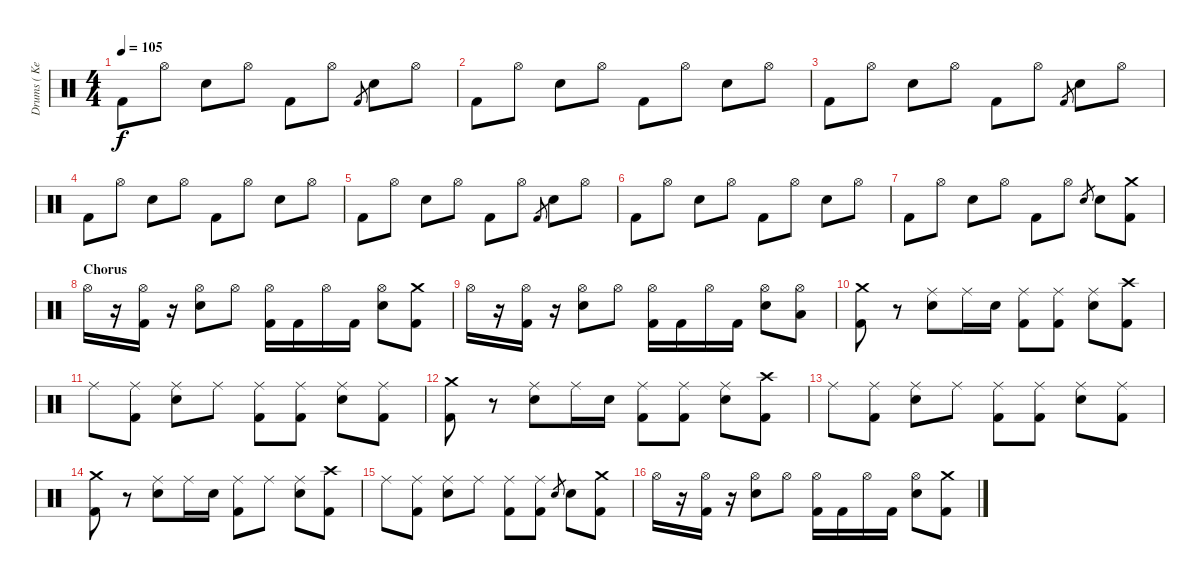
\track ("Drums ( Kevin Miller )" "Drums ( Ke") {instrument percussion}
\staff {score}
\articulation defaults
\ts (4 4)
\tempo 105
\clef neutral
\ks c "Kick (hit) 2".8{dy f} "Hi-Hat (open)".8 "Snare (hit) 2".8 "Hi-Hat (open)".8 "Kick (hit) 2".8 "Hi-Hat (open)".8 "Kick (hit) 2".8{gr} "Snare (hit) 2".8 "Hi-Hat (open)".8
|
"Kick (hit) 2".8 "Hi-Hat (open)".8 "Snare (hit) 2".8 "Hi-Hat (open)".8 "Kick (hit) 2".8 "Hi-Hat (open)".8 "Snare (hit) 2".8 "Hi-Hat (open)".8 |
"Kick (hit) 2".8 "Hi-Hat (open)".8 "Snare (hit) 2".8 "Hi-Hat (open)".8 "Kick (hit) 2".8 "Hi-Hat (open)".8 "Kick (hit) 2".8{gr} "Snare (hit) 2".8 "Hi-Hat (open)".8 |
"Kick (hit) 2".8 "Hi-Hat (open)".8 "Snare (hit) 2".8 "Hi-Hat (open)".8 "Kick (hit) 2".8 "Hi-Hat (open)".8 "Snare (hit) 2".8 "Hi-Hat (open)".8 |
"Kick (hit) 2".8 "Hi-Hat (open)".8 "Snare (hit) 2".8 "Hi-Hat (open)".8 "Kick (hit) 2".8 "Hi-Hat (open)".8 "Kick (hit) 2".8{gr} "Snare (hit) 2".8 "Hi-Hat (open)".8 |
"Kick (hit) 2".8 "Hi-Hat (open)".8 "Snare (hit) 2".8 "Hi-Hat (open)".8 "Kick (hit) 2".8 "Hi-Hat (open)".8 "Snare (hit) 2".8 "Hi-Hat (open)".8 |
"Kick (hit) 2".8 "Hi-Hat (open)".8 "Snare (hit) 2".8 "Hi-Hat (open)".8 "Kick (hit) 2".8 "Hi-Hat (open)".8 "Snare (hit) 2".8{gr} "Snare (hit) 2".8 ("Crash medium (hit)" "Kick (hit) 2").8 |
\section ("" "Chorus")
"Hi-Hat (open)".16 r.16 ("Hi-Hat (open)" "Kick (hit) 2").16 r.16 ("Hi-Hat (open)" "Snare (hit) 2").8 "Hi-Hat (open)".8 ("Hi-Hat (open)" "Kick (hit) 2").16 "Kick (hit) 2".16 "Hi-Hat (open)".16 "Kick (hit) 2".16 ("Hi-Hat (open)" "Snare (hit) 2").8 ("Crash medium (hit)" "Kick (hit) 2").8 |
"Hi-Hat (open)".16 r.16 ("Hi-Hat (open)" "Kick (hit) 2").16 r.16 ("Hi-Hat (open)" "Snare (hit) 2").8 "Hi-Hat (open)".8 ("Hi-Hat (open)" "Kick (hit) 2").16 "Kick (hit) 2".16 "Hi-Hat (open)".16 "Kick (hit) 2".16 ("Hi-Hat (open)" "Snare (hit) 2").8 ("Hi-Hat (open)" "Low Tom (hit)").8 |
("Crash medium (hit)" "Kick (hit) 2").8 r.8 ("Ride (middle)" "Snare (hit) 2").8 "Ride (middle)".16 "Snare (hit) 2".16 ("Ride (middle)" "Kick (hit) 2").8 ("Ride (middle)" "Kick (hit) 2").8 ("Ride (middle)" "Snare (hit) 2").8 ("Crash high (hit)" "Kick (hit) 2").8 |
"Ride (middle)".8 ("Ride (middle)" "Kick (hit) 2").8 ("Ride (middle)" "Snare (hit) 2").8 "Ride (middle)".8 ("Ride (middle)" "Kick (hit) 2").8 ("Ride (middle)" "Kick (hit) 2").8 ("Ride (middle)" "Snare (hit) 2").8 ("Ride (middle)" "Kick (hit) 2").8 |
("Crash medium (hit)" "Kick (hit) 2").8 r.8 ("Ride (middle)" "Snare (hit) 2").8 "Ride (middle)".16 "Snare (hit) 2".16 ("Ride (middle)" "Kick (hit) 2").8 ("Ride (middle)" "Kick (hit) 2").8 ("Ride (middle)" "Snare (hit) 2").8 ("Crash high (hit)" "Kick (hit) 2").8 |
"Ride (middle)".8 ("Ride (middle)" "Kick (hit) 2").8 ("Ride (middle)" "Snare (hit) 2").8 "Ride (middle)".8 ("Ride (middle)" "Kick (hit) 2").8 ("Ride (middle)" "Kick (hit) 2").8 ("Ride (middle)" "Snare (hit) 2").8 ("Ride (middle)" "Kick (hit) 2").8 |
("Crash medium (hit)" "Kick (hit) 2").8 r.8 ("Ride (middle)" "Snare (hit) 2").8 "Ride (middle)".16 "Snare (hit) 2".16 ("Ride (middle)" "Kick (hit) 2").8 "Ride (middle)".8 ("Ride (middle)" "Snare (hit) 2").8 ("Crash high (hit)" "Kick (hit) 2").8 |
"Ride (middle)".8 ("Ride (middle)" "Kick (hit) 2").8 ("Ride (middle)" "Snare (hit) 2").8 "Ride (middle)".8 ("Ride (middle)" "Kick (hit) 2").8 ("Ride (middle)" "Kick (hit) 2").8 "Snare (hit) 2".8{gr} "Snare (hit) 2".8 ("Crash medium (hit)" "Kick (hit) 2").8 |
"Hi-Hat (open)".16 r.16 ("Hi-Hat (open)" "Kick (hit) 2").16 r.16 ("Hi-Hat (open)" "Snare (hit) 2").8 "Hi-Hat (open)".8 ("Hi-Hat (open)" "Kick (hit) 2").16 "Kick (hit) 2".16 "Hi-Hat (open)".16 "Kick (hit) 2".16 ("Hi-Hat (open)" "Snare (hit) 2").8 ("Crash medium (hit)" "Kick (hit) 2").8
